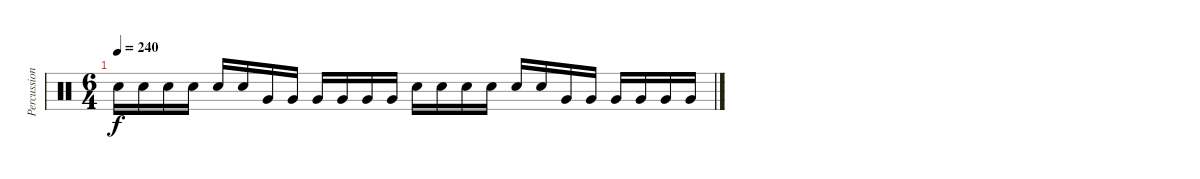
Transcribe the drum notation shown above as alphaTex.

\track ("Percussion" "Percussion") {instrument percussion}
\staff {score}
\articulation defaults
\ts (6 4)
\tempo 240
\clef neutral
\ks c "Electric Snare (hit)".16{dy f} "Electric Snare (hit)".16 "Electric Snare (hit)".16 "Electric Snare (hit)".16 "Electric Snare (hit)".16 "Electric Snare (hit)".16 "Very Low Tom (hit)".16 "Very Low Tom (hit)".16 "Very Low Tom (hit)".16 "Very Low Tom (hit)".16 "Very Low Tom (hit)".16 "Very Low Tom (hit)".16 "Electric Snare (hit)".16 "Electric Snare (hit)".16 "Electric Snare (hit)".16 "Electric Snare (hit)".16 "Electric Snare (hit)".16 "Electric Snare (hit)".16 "Very Low Tom (hit)".16 "Very Low Tom (hit)".16 "Very Low Tom (hit)".16 "Very Low Tom (hit)".16 "Very Low Tom (hit)".16 "Very Low Tom (hit)".16
